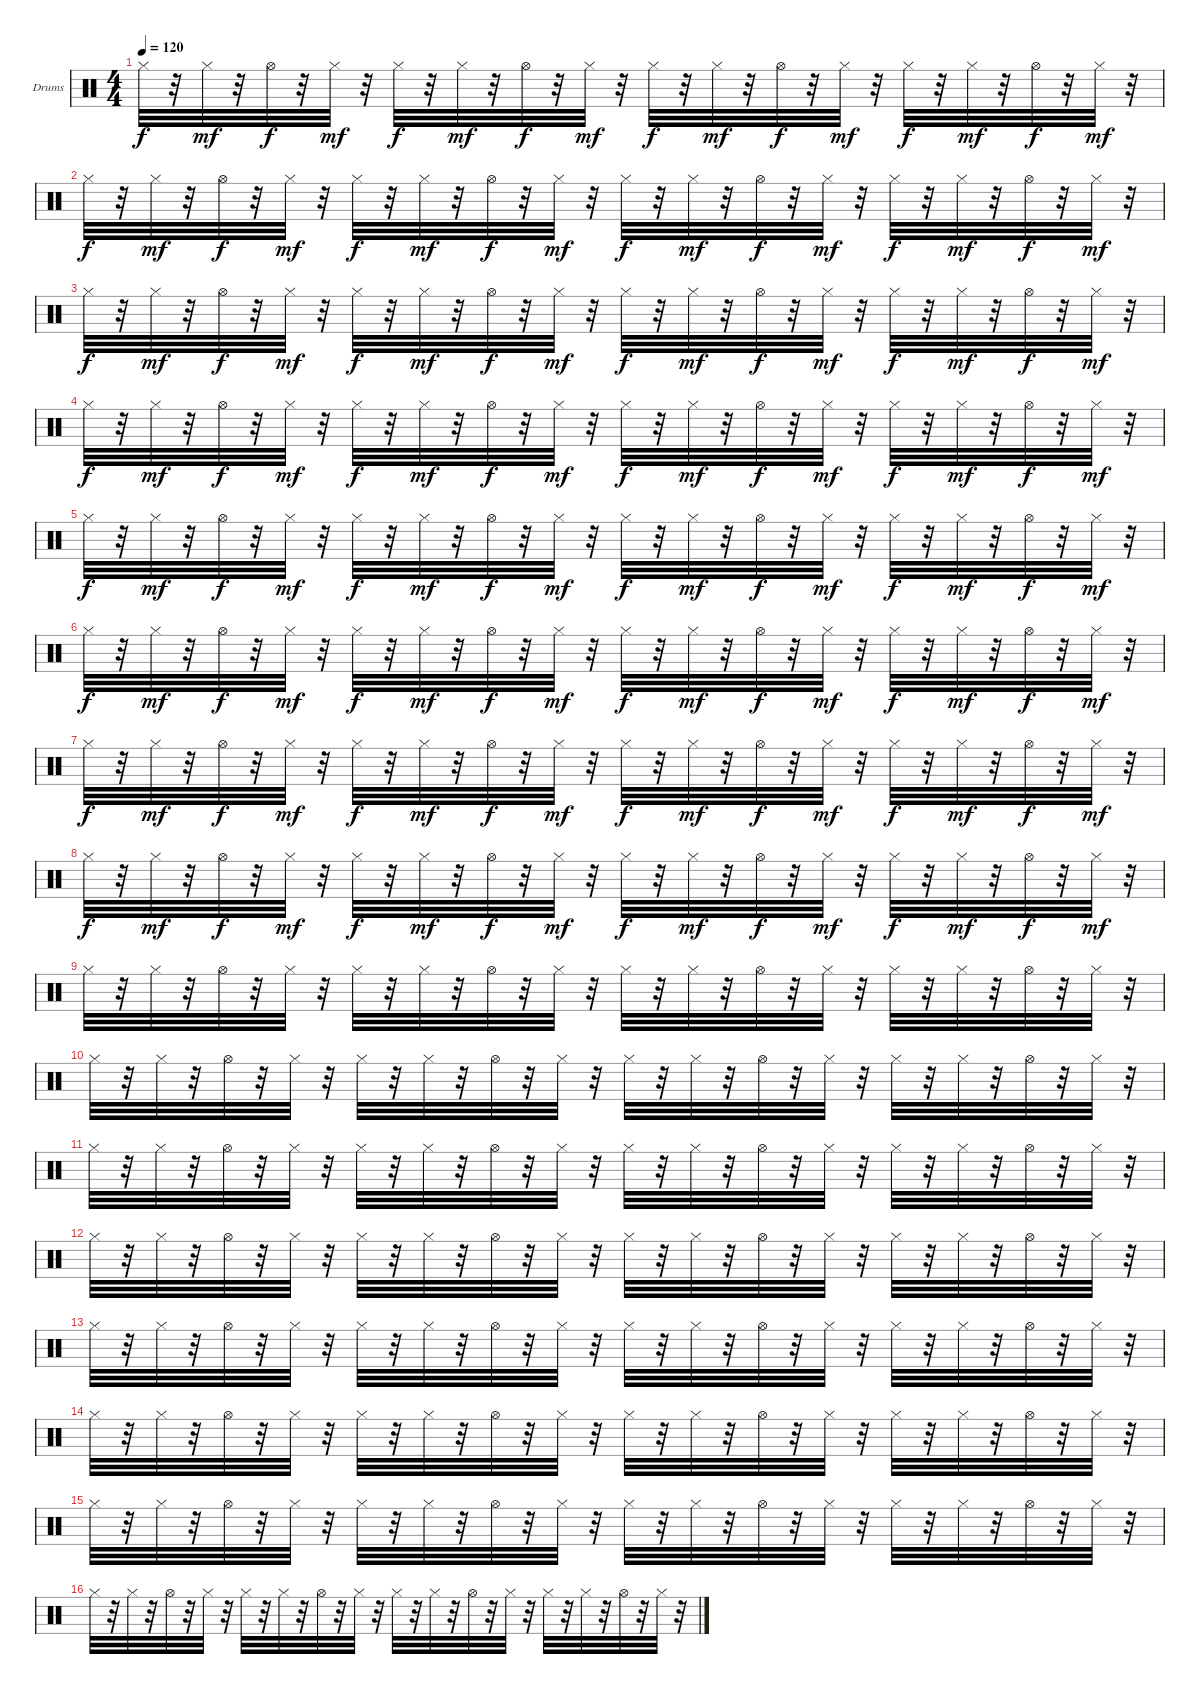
\defaultSystemsLayout 4
\bracketExtendMode groupsimilarinstruments
\firstSystemTrackNameOrientation horizontal
\otherSystemsTrackNameOrientation horizontal
\track ("Drumkit" "Drums") {instrument percussion}
\staff {score}
\articulation defaults
\ts (4 4)
\tempo 120
\clef neutral
\scale
0.333333
\ks c "Hi-Hat (closed)".32{dy f}
r.32 "Hi-Hat (closed)".32{dy mf} r.32 "Hi-Hat (open)".32{dy f} r.32 "Hi-Hat (closed)".32{dy mf} r.32 "Hi-Hat (closed)".32{dy f} r.32 "Hi-Hat (closed)".32{dy mf} r.32 "Hi-Hat (open)".32{dy f} r.32 "Hi-Hat (closed)".32{dy mf} r.32 "Hi-Hat (closed)".32{dy f} r.32 "Hi-Hat (closed)".32{dy mf} r.32 "Hi-Hat (open)".32{dy f} r.32 "Hi-Hat (closed)".32{dy mf} r.32 "Hi-Hat (closed)".32{dy f} r.32 "Hi-Hat (closed)".32{dy mf} r.32 "Hi-Hat (open)".32{dy f} r.32 "Hi-Hat (closed)".32{dy mf} r.32 |
\scale
0.333333 "Hi-Hat (closed)".32{dy f} r.32 "Hi-Hat (closed)".32{dy mf} r.32 "Hi-Hat (open)".32{dy f} r.32 "Hi-Hat (closed)".32{dy mf} r.32 "Hi-Hat (closed)".32{dy f} r.32 "Hi-Hat (closed)".32{dy mf} r.32 "Hi-Hat (open)".32{dy f} r.32 "Hi-Hat (closed)".32{dy mf} r.32 "Hi-Hat (closed)".32{dy f} r.32 "Hi-Hat (closed)".32{dy mf} r.32 "Hi-Hat (open)".32{dy f} r.32 "Hi-Hat (closed)".32{dy mf} r.32 "Hi-Hat (closed)".32{dy f} r.32 "Hi-Hat (closed)".32{dy mf} r.32 "Hi-Hat (open)".32{dy f} r.32 "Hi-Hat (closed)".32{dy mf} r.32 |
\scale
0.333333 "Hi-Hat (closed)".32{dy f} r.32 "Hi-Hat (closed)".32{dy mf} r.32 "Hi-Hat (open)".32{dy f} r.32 "Hi-Hat (closed)".32{dy mf} r.32 "Hi-Hat (closed)".32{dy f} r.32 "Hi-Hat (closed)".32{dy mf} r.32 "Hi-Hat (open)".32{dy f} r.32 "Hi-Hat (closed)".32{dy mf} r.32 "Hi-Hat (closed)".32{dy f} r.32 "Hi-Hat (closed)".32{dy mf} r.32 "Hi-Hat (open)".32{dy f} r.32 "Hi-Hat (closed)".32{dy mf} r.32 "Hi-Hat (closed)".32{dy f} r.32 "Hi-Hat (closed)".32{dy mf} r.32 "Hi-Hat (open)".32{dy f} r.32 "Hi-Hat (closed)".32{dy mf} r.32 |
\scale
0.333333 "Hi-Hat (closed)".32{dy f} r.32 "Hi-Hat (closed)".32{dy mf} r.32 "Hi-Hat (open)".32{dy f} r.32 "Hi-Hat (closed)".32{dy mf} r.32 "Hi-Hat (closed)".32{dy f} r.32 "Hi-Hat (closed)".32{dy mf} r.32 "Hi-Hat (open)".32{dy f} r.32 "Hi-Hat (closed)".32{dy mf} r.32 "Hi-Hat (closed)".32{dy f} r.32 "Hi-Hat (closed)".32{dy mf} r.32 "Hi-Hat (open)".32{dy f} r.32 "Hi-Hat (closed)".32{dy mf} r.32 "Hi-Hat (closed)".32{dy f} r.32 "Hi-Hat (closed)".32{dy mf} r.32 "Hi-Hat (open)".32{dy f} r.32 "Hi-Hat (closed)".32{dy mf} r.32 |
\scale
0.333333 "Hi-Hat (closed)".32{dy f} r.32 "Hi-Hat (closed)".32{dy mf} r.32 "Hi-Hat (open)".32{dy f} r.32 "Hi-Hat (closed)".32{dy mf} r.32 "Hi-Hat (closed)".32{dy f} r.32 "Hi-Hat (closed)".32{dy mf} r.32 "Hi-Hat (open)".32{dy f} r.32 "Hi-Hat (closed)".32{dy mf} r.32 "Hi-Hat (closed)".32{dy f} r.32 "Hi-Hat (closed)".32{dy mf} r.32 "Hi-Hat (open)".32{dy f} r.32 "Hi-Hat (closed)".32{dy mf} r.32 "Hi-Hat (closed)".32{dy f} r.32 "Hi-Hat (closed)".32{dy mf} r.32 "Hi-Hat (open)".32{dy f} r.32 "Hi-Hat (closed)".32{dy mf} r.32 |
\scale
0.333333 "Hi-Hat (closed)".32{dy f} r.32 "Hi-Hat (closed)".32{dy mf} r.32 "Hi-Hat (open)".32{dy f} r.32 "Hi-Hat (closed)".32{dy mf} r.32 "Hi-Hat (closed)".32{dy f} r.32 "Hi-Hat (closed)".32{dy mf} r.32 "Hi-Hat (open)".32{dy f} r.32 "Hi-Hat (closed)".32{dy mf} r.32 "Hi-Hat (closed)".32{dy f} r.32 "Hi-Hat (closed)".32{dy mf} r.32 "Hi-Hat (open)".32{dy f} r.32 "Hi-Hat (closed)".32{dy mf} r.32 "Hi-Hat (closed)".32{dy f} r.32 "Hi-Hat (closed)".32{dy mf} r.32 "Hi-Hat (open)".32{dy f} r.32 "Hi-Hat (closed)".32{dy mf} r.32 |
\scale
0.333333 "Hi-Hat (closed)".32{dy f} r.32 "Hi-Hat (closed)".32{dy mf} r.32 "Hi-Hat (open)".32{dy f} r.32 "Hi-Hat (closed)".32{dy mf} r.32 "Hi-Hat (closed)".32{dy f} r.32 "Hi-Hat (closed)".32{dy mf} r.32 "Hi-Hat (open)".32{dy f} r.32 "Hi-Hat (closed)".32{dy mf} r.32 "Hi-Hat (closed)".32{dy f} r.32 "Hi-Hat (closed)".32{dy mf} r.32 "Hi-Hat (open)".32{dy f} r.32 "Hi-Hat (closed)".32{dy mf} r.32 "Hi-Hat (closed)".32{dy f} r.32 "Hi-Hat (closed)".32{dy mf} r.32 "Hi-Hat (open)".32{dy f} r.32 "Hi-Hat (closed)".32{dy mf} r.32 |
\scale
0.333333 "Hi-Hat (closed)".32{dy f} r.32 "Hi-Hat (closed)".32{dy mf} r.32 "Hi-Hat (open)".32{dy f} r.32 "Hi-Hat (closed)".32{dy mf} r.32 "Hi-Hat (closed)".32{dy f} r.32 "Hi-Hat (closed)".32{dy mf} r.32 "Hi-Hat (open)".32{dy f} r.32 "Hi-Hat (closed)".32{dy mf} r.32 "Hi-Hat (closed)".32{dy f} r.32 "Hi-Hat (closed)".32{dy mf} r.32 "Hi-Hat (open)".32{dy f} r.32 "Hi-Hat (closed)".32{dy mf} r.32 "Hi-Hat (closed)".32{dy f} r.32 "Hi-Hat (closed)".32{dy mf} r.32 "Hi-Hat (open)".32{dy f} r.32 "Hi-Hat (closed)".32{dy mf} r.32 |
\scale
0.333333 "Hi-Hat (closed)".32 r.32 "Hi-Hat (closed)".32 r.32 "Hi-Hat (open)".32 r.32 "Hi-Hat (closed)".32 r.32 "Hi-Hat (closed)".32 r.32 "Hi-Hat (closed)".32 r.32 "Hi-Hat (open)".32 r.32 "Hi-Hat (closed)".32 r.32 "Hi-Hat (closed)".32 r.32 "Hi-Hat (closed)".32 r.32 "Hi-Hat (open)".32 r.32 "Hi-Hat (closed)".32 r.32 "Hi-Hat (closed)".32 r.32 "Hi-Hat (closed)".32 r.32 "Hi-Hat (open)".32 r.32 "Hi-Hat (closed)".32 r.32 |
\scale
0.333333 "Hi-Hat (closed)".32 r.32 "Hi-Hat (closed)".32 r.32 "Hi-Hat (open)".32 r.32 "Hi-Hat (closed)".32 r.32 "Hi-Hat (closed)".32 r.32 "Hi-Hat (closed)".32 r.32 "Hi-Hat (open)".32 r.32 "Hi-Hat (closed)".32 r.32 "Hi-Hat (closed)".32 r.32 "Hi-Hat (closed)".32 r.32 "Hi-Hat (open)".32 r.32 "Hi-Hat (closed)".32 r.32 "Hi-Hat (closed)".32 r.32 "Hi-Hat (closed)".32 r.32 "Hi-Hat (open)".32 r.32 "Hi-Hat (closed)".32 r.32 |
\scale
0.333333 "Hi-Hat (closed)".32 r.32 "Hi-Hat (closed)".32 r.32 "Hi-Hat (open)".32 r.32 "Hi-Hat (closed)".32 r.32 "Hi-Hat (closed)".32 r.32 "Hi-Hat (closed)".32 r.32 "Hi-Hat (open)".32 r.32 "Hi-Hat (closed)".32 r.32 "Hi-Hat (closed)".32 r.32 "Hi-Hat (closed)".32 r.32 "Hi-Hat (open)".32 r.32 "Hi-Hat (closed)".32 r.32 "Hi-Hat (closed)".32 r.32 "Hi-Hat (closed)".32 r.32 "Hi-Hat (open)".32 r.32 "Hi-Hat (closed)".32 r.32 |
\scale
0.333333 "Hi-Hat (closed)".32 r.32 "Hi-Hat (closed)".32 r.32 "Hi-Hat (open)".32 r.32 "Hi-Hat (closed)".32 r.32 "Hi-Hat (closed)".32 r.32 "Hi-Hat (closed)".32 r.32 "Hi-Hat (open)".32 r.32 "Hi-Hat (closed)".32 r.32 "Hi-Hat (closed)".32 r.32 "Hi-Hat (closed)".32 r.32 "Hi-Hat (open)".32 r.32 "Hi-Hat (closed)".32 r.32 "Hi-Hat (closed)".32 r.32 "Hi-Hat (closed)".32 r.32 "Hi-Hat (open)".32 r.32 "Hi-Hat (closed)".32 r.32 |
\scale
0.333333 "Hi-Hat (closed)".32 r.32 "Hi-Hat (closed)".32 r.32 "Hi-Hat (open)".32 r.32 "Hi-Hat (closed)".32 r.32 "Hi-Hat (closed)".32 r.32 "Hi-Hat (closed)".32 r.32 "Hi-Hat (open)".32 r.32 "Hi-Hat (closed)".32 r.32 "Hi-Hat (closed)".32 r.32 "Hi-Hat (closed)".32 r.32 "Hi-Hat (open)".32 r.32 "Hi-Hat (closed)".32 r.32 "Hi-Hat (closed)".32 r.32 "Hi-Hat (closed)".32 r.32 "Hi-Hat (open)".32 r.32 "Hi-Hat (closed)".32 r.32 |
\scale
0.333333 "Hi-Hat (closed)".32 r.32 "Hi-Hat (closed)".32 r.32 "Hi-Hat (open)".32 r.32 "Hi-Hat (closed)".32 r.32 "Hi-Hat (closed)".32 r.32 "Hi-Hat (closed)".32 r.32 "Hi-Hat (open)".32 r.32 "Hi-Hat (closed)".32 r.32 "Hi-Hat (closed)".32 r.32 "Hi-Hat (closed)".32 r.32 "Hi-Hat (open)".32 r.32 "Hi-Hat (closed)".32 r.32 "Hi-Hat (closed)".32 r.32 "Hi-Hat (closed)".32 r.32 "Hi-Hat (open)".32 r.32 "Hi-Hat (closed)".32 r.32 |
\scale
0.333333 "Hi-Hat (closed)".32 r.32 "Hi-Hat (closed)".32 r.32 "Hi-Hat (open)".32 r.32 "Hi-Hat (closed)".32 r.32 "Hi-Hat (closed)".32 r.32 "Hi-Hat (closed)".32 r.32 "Hi-Hat (open)".32 r.32 "Hi-Hat (closed)".32 r.32 "Hi-Hat (closed)".32 r.32 "Hi-Hat (closed)".32 r.32 "Hi-Hat (open)".32 r.32 "Hi-Hat (closed)".32 r.32 "Hi-Hat (closed)".32 r.32 "Hi-Hat (closed)".32 r.32 "Hi-Hat (open)".32 r.32 "Hi-Hat (closed)".32 r.32 |
\scale
0.333333 "Hi-Hat (closed)".32 r.32 "Hi-Hat (closed)".32 r.32 "Hi-Hat (open)".32 r.32 "Hi-Hat (closed)".32 r.32 "Hi-Hat (closed)".32 r.32 "Hi-Hat (closed)".32 r.32 "Hi-Hat (open)".32 r.32 "Hi-Hat (closed)".32 r.32 "Hi-Hat (closed)".32 r.32 "Hi-Hat (closed)".32 r.32 "Hi-Hat (open)".32 r.32 "Hi-Hat (closed)".32 r.32 "Hi-Hat (closed)".32 r.32 "Hi-Hat (closed)".32 r.32 "Hi-Hat (open)".32 r.32 "Hi-Hat (closed)".32 r.32
